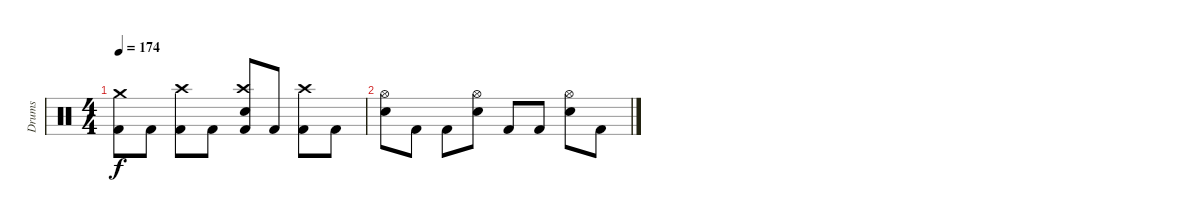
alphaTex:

\track ("Drums" "Drums") {instrument percussion}
\staff {score}
\articulation defaults
\ts (4 4)
\tempo 174
\clef neutral
\ks c
("Crash medium (hit)" "Kick (hit) 2").8{dy f} "Kick (hit) 2".8 ("Crash high (hit)" "Kick (hit) 2").8 "Kick (hit) 2".8 ("Crash high (hit)" "Electric Snare (hit)" "Kick (hit) 2").8 "Kick (hit) 2".8 ("Crash high (hit)" "Kick (hit) 2").8 "Kick (hit) 2".8 |
("Hi-Hat (open)" "Electric Snare (hit)").8 "Kick (hit) 2".8 "Kick (hit) 2".8 ("Hi-Hat (open)" "Electric Snare (hit)").8 "Kick (hit) 2".8 "Kick (hit) 2".8 ("Hi-Hat (open)" "Electric Snare (hit)").8 "Kick (hit) 2".8
